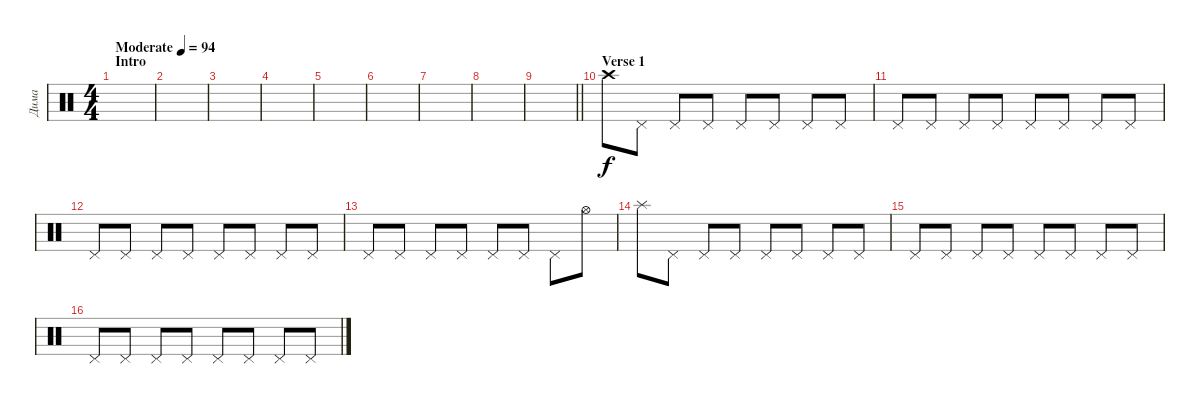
\track ("Дима" "Дима") {instrument percussion}
\staff {score}
\articulation defaults
\ts (4 4)
\section ("" "Intro")
\tempo (94 "Moderate")
\clef neutral
\ks c
|
|
|
|
|
|
|
|
\barLineRight lightlight
|
\section ("" "Verse 1")
"Crash high (hit)".8 "Pedal Hi-Hat (hit)".8 "Pedal Hi-Hat (hit)".8 "Pedal Hi-Hat (hit)".8 "Pedal Hi-Hat (hit)".8 "Pedal Hi-Hat (hit)".8 "Pedal Hi-Hat (hit)".8 "Pedal Hi-Hat (hit)".8 |
"Pedal Hi-Hat (hit)".8 "Pedal Hi-Hat (hit)".8 "Pedal Hi-Hat (hit)".8 "Pedal Hi-Hat (hit)".8 "Pedal Hi-Hat (hit)".8 "Pedal Hi-Hat (hit)".8 "Pedal Hi-Hat (hit)".8 "Pedal Hi-Hat (hit)".8 |
"Pedal Hi-Hat (hit)".8 "Pedal Hi-Hat (hit)".8 "Pedal Hi-Hat (hit)".8 "Pedal Hi-Hat (hit)".8 "Pedal Hi-Hat (hit)".8 "Pedal Hi-Hat (hit)".8 "Pedal Hi-Hat (hit)".8 "Pedal Hi-Hat (hit)".8 |
"Pedal Hi-Hat (hit)".8 "Pedal Hi-Hat (hit)".8 "Pedal Hi-Hat (hit)".8 "Pedal Hi-Hat (hit)".8 "Pedal Hi-Hat (hit)".8 "Pedal Hi-Hat (hit)".8 "Pedal Hi-Hat (hit)".8 "Hi-Hat (open)".8 |
"Splash (hit)".8 "Pedal Hi-Hat (hit)".8 "Pedal Hi-Hat (hit)".8 "Pedal Hi-Hat (hit)".8 "Pedal Hi-Hat (hit)".8 "Pedal Hi-Hat (hit)".8 "Pedal Hi-Hat (hit)".8 "Pedal Hi-Hat (hit)".8 |
"Pedal Hi-Hat (hit)".8 "Pedal Hi-Hat (hit)".8 "Pedal Hi-Hat (hit)".8 "Pedal Hi-Hat (hit)".8 "Pedal Hi-Hat (hit)".8 "Pedal Hi-Hat (hit)".8 "Pedal Hi-Hat (hit)".8 "Pedal Hi-Hat (hit)".8 |
"Pedal Hi-Hat (hit)".8 "Pedal Hi-Hat (hit)".8 "Pedal Hi-Hat (hit)".8 "Pedal Hi-Hat (hit)".8 "Pedal Hi-Hat (hit)".8 "Pedal Hi-Hat (hit)".8 "Pedal Hi-Hat (hit)".8 "Pedal Hi-Hat (hit)".8
